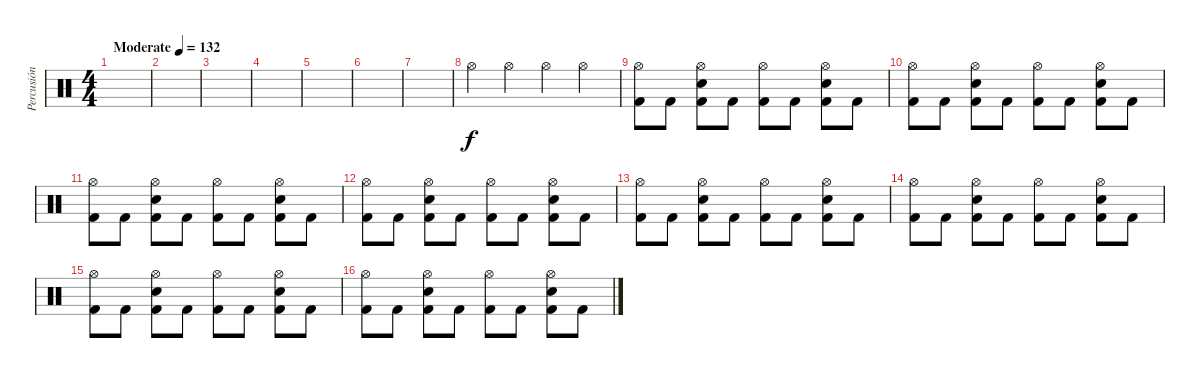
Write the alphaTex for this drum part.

\track ("Percusión" "Percusión") {instrument percussion}
\staff {score}
\articulation defaults
\ts (4 4)
\tempo (132 "Moderate")
\clef neutral
\ks c
|
|
|
|
|
|
|
"Hi-Hat (open)".4 "Hi-Hat (open)".4 "Hi-Hat (open)".4 "Hi-Hat (open)".4 |
("Hi-Hat (open)" "Kick (hit) 2").8 "Kick (hit) 2".8 ("Hi-Hat (open)" "Electric Snare (hit)" "Kick (hit) 2").8 "Kick (hit) 2".8 ("Hi-Hat (open)" "Kick (hit) 2").8 "Kick (hit) 2".8 ("Hi-Hat (open)" "Electric Snare (hit)" "Kick (hit) 2").8 "Kick (hit) 2".8 |
("Hi-Hat (open)" "Kick (hit) 2").8 "Kick (hit) 2".8 ("Hi-Hat (open)" "Electric Snare (hit)" "Kick (hit) 2").8 "Kick (hit) 2".8 ("Hi-Hat (open)" "Kick (hit) 2").8 "Kick (hit) 2".8 ("Hi-Hat (open)" "Electric Snare (hit)" "Kick (hit) 2").8 "Kick (hit) 2".8 |
("Hi-Hat (open)" "Kick (hit) 2").8 "Kick (hit) 2".8 ("Hi-Hat (open)" "Electric Snare (hit)" "Kick (hit) 2").8 "Kick (hit) 2".8 ("Hi-Hat (open)" "Kick (hit) 2").8 "Kick (hit) 2".8 ("Hi-Hat (open)" "Electric Snare (hit)" "Kick (hit) 2").8 "Kick (hit) 2".8 |
("Hi-Hat (open)" "Kick (hit) 2").8 "Kick (hit) 2".8 ("Hi-Hat (open)" "Electric Snare (hit)" "Kick (hit) 2").8 "Kick (hit) 2".8 ("Hi-Hat (open)" "Kick (hit) 2").8 "Kick (hit) 2".8 ("Hi-Hat (open)" "Electric Snare (hit)" "Kick (hit) 2").8 "Kick (hit) 2".8 |
("Hi-Hat (open)" "Kick (hit) 2").8 "Kick (hit) 2".8 ("Hi-Hat (open)" "Electric Snare (hit)" "Kick (hit) 2").8 "Kick (hit) 2".8 ("Hi-Hat (open)" "Kick (hit) 2").8 "Kick (hit) 2".8 ("Hi-Hat (open)" "Electric Snare (hit)" "Kick (hit) 2").8 "Kick (hit) 2".8 |
("Hi-Hat (open)" "Kick (hit) 2").8 "Kick (hit) 2".8 ("Hi-Hat (open)" "Electric Snare (hit)" "Kick (hit) 2").8 "Kick (hit) 2".8 ("Hi-Hat (open)" "Kick (hit) 2").8 "Kick (hit) 2".8 ("Hi-Hat (open)" "Electric Snare (hit)" "Kick (hit) 2").8 "Kick (hit) 2".8 |
("Hi-Hat (open)" "Kick (hit) 2").8 "Kick (hit) 2".8 ("Hi-Hat (open)" "Electric Snare (hit)" "Kick (hit) 2").8 "Kick (hit) 2".8 ("Hi-Hat (open)" "Kick (hit) 2").8 "Kick (hit) 2".8 ("Hi-Hat (open)" "Electric Snare (hit)" "Kick (hit) 2").8 "Kick (hit) 2".8 |
("Hi-Hat (open)" "Kick (hit) 2").8 "Kick (hit) 2".8 ("Hi-Hat (open)" "Electric Snare (hit)" "Kick (hit) 2").8 "Kick (hit) 2".8 ("Hi-Hat (open)" "Kick (hit) 2").8 "Kick (hit) 2".8 ("Hi-Hat (open)" "Electric Snare (hit)" "Kick (hit) 2").8 "Kick (hit) 2".8
